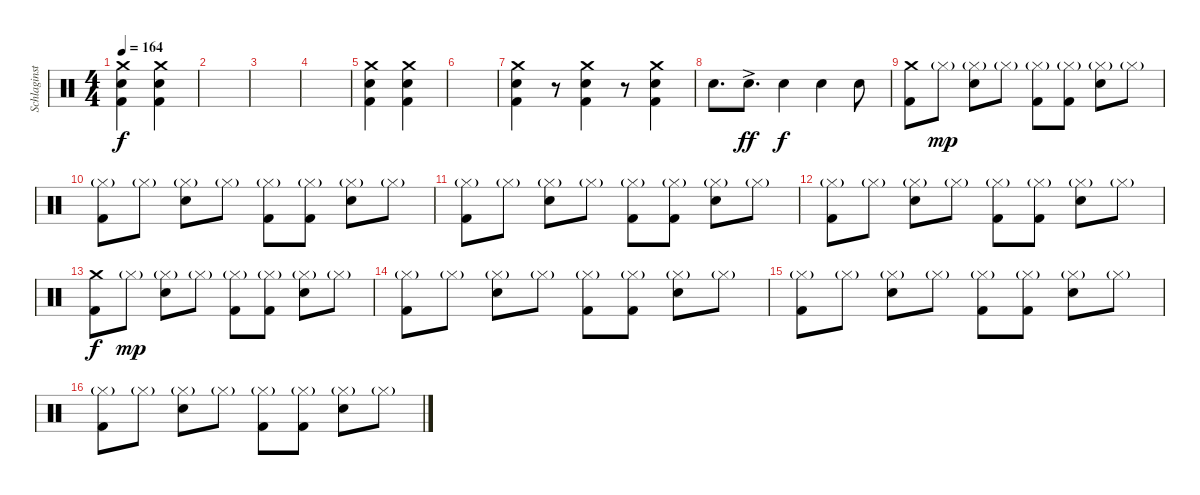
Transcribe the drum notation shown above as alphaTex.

\track ("Schlaginstrumente - Auswahl" "Schlaginst") {instrument percussion}
\staff {score}
\articulation defaults
\ts (4 4)
\tempo 164
\clef neutral
\ks c
("Crash medium (hit)" "Snare (hit) 2" "Kick (hit) 2").4{dy f} ("Crash medium (hit)" "Snare (hit) 2" "Kick (hit) 2").4 |
|
|
|
("Crash medium (hit)" "Snare (hit) 2" "Kick (hit) 2").4 ("Crash medium (hit)" "Snare (hit) 2" "Kick (hit) 2").4 |
|
("Crash medium (hit)" "Snare (hit) 2" "Kick (hit) 2").4 r.8 ("Crash medium (hit)" "Snare (hit) 2" "Kick (hit) 2").4 r.8 ("Crash medium (hit)" "Snare (hit) 2" "Kick (hit) 2").4 |
"Snare (hit) 2".8{d} "Snare (hit) 2"{ac}.8{d dy ff} "Snare (hit) 2".4{dy f} "Snare (hit) 2".4 "Snare (hit) 2".8 |
("Crash medium (hit)" "Kick (hit) 2").8 "Hi-Hat (closed)"{g}.8{dy mp} ("Hi-Hat (closed)"{g} "Snare (hit) 2").8 "Hi-Hat (closed)"{g}.8 ("Hi-Hat (closed)"{g} "Kick (hit) 2").8 ("Hi-Hat (closed)"{g} "Kick (hit) 2").8 ("Hi-Hat (closed)"{g} "Snare (hit) 2").8 "Hi-Hat (closed)"{g}.8 |
("Hi-Hat (closed)"{g} "Kick (hit) 2").8 "Hi-Hat (closed)"{g}.8 ("Hi-Hat (closed)"{g} "Snare (hit) 2").8 "Hi-Hat (closed)"{g}.8 ("Hi-Hat (closed)"{g} "Kick (hit) 2").8 ("Hi-Hat (closed)"{g} "Kick (hit) 2").8 ("Hi-Hat (closed)"{g} "Snare (hit) 2").8 "Hi-Hat (closed)"{g}.8 |
("Hi-Hat (closed)"{g} "Kick (hit) 2").8 "Hi-Hat (closed)"{g}.8 ("Hi-Hat (closed)"{g} "Snare (hit) 2").8 "Hi-Hat (closed)"{g}.8 ("Hi-Hat (closed)"{g} "Kick (hit) 2").8 ("Hi-Hat (closed)"{g} "Kick (hit) 2").8 ("Hi-Hat (closed)"{g} "Snare (hit) 2").8 "Hi-Hat (closed)"{g}.8 |
("Hi-Hat (closed)"{g} "Kick (hit) 2").8 "Hi-Hat (closed)"{g}.8 ("Hi-Hat (closed)"{g} "Snare (hit) 2").8 "Hi-Hat (closed)"{g}.8 ("Hi-Hat (closed)"{g} "Kick (hit) 2").8 ("Hi-Hat (closed)"{g} "Kick (hit) 2").8 ("Hi-Hat (closed)"{g} "Snare (hit) 2").8 "Hi-Hat (closed)"{g}.8 |
("Crash medium (hit)" "Kick (hit) 2").8{dy f} "Hi-Hat (closed)"{g}.8{dy mp} ("Hi-Hat (closed)"{g} "Snare (hit) 2").8 "Hi-Hat (closed)"{g}.8 ("Hi-Hat (closed)"{g} "Kick (hit) 2").8 ("Hi-Hat (closed)"{g} "Kick (hit) 2").8 ("Hi-Hat (closed)"{g} "Snare (hit) 2").8 "Hi-Hat (closed)"{g}.8 |
("Hi-Hat (closed)"{g} "Kick (hit) 2").8 "Hi-Hat (closed)"{g}.8 ("Hi-Hat (closed)"{g} "Snare (hit) 2").8 "Hi-Hat (closed)"{g}.8 ("Hi-Hat (closed)"{g} "Kick (hit) 2").8 ("Hi-Hat (closed)"{g} "Kick (hit) 2").8 ("Hi-Hat (closed)"{g} "Snare (hit) 2").8 "Hi-Hat (closed)"{g}.8 |
("Hi-Hat (closed)"{g} "Kick (hit) 2").8 "Hi-Hat (closed)"{g}.8 ("Hi-Hat (closed)"{g} "Snare (hit) 2").8 "Hi-Hat (closed)"{g}.8 ("Hi-Hat (closed)"{g} "Kick (hit) 2").8 ("Hi-Hat (closed)"{g} "Kick (hit) 2").8 ("Hi-Hat (closed)"{g} "Snare (hit) 2").8 "Hi-Hat (closed)"{g}.8 |
("Hi-Hat (closed)"{g} "Kick (hit) 2").8 "Hi-Hat (closed)"{g}.8 ("Hi-Hat (closed)"{g} "Snare (hit) 2").8 "Hi-Hat (closed)"{g}.8 ("Hi-Hat (closed)"{g} "Kick (hit) 2").8 ("Hi-Hat (closed)"{g} "Kick (hit) 2").8 ("Hi-Hat (closed)"{g} "Snare (hit) 2").8 "Hi-Hat (closed)"{g}.8
